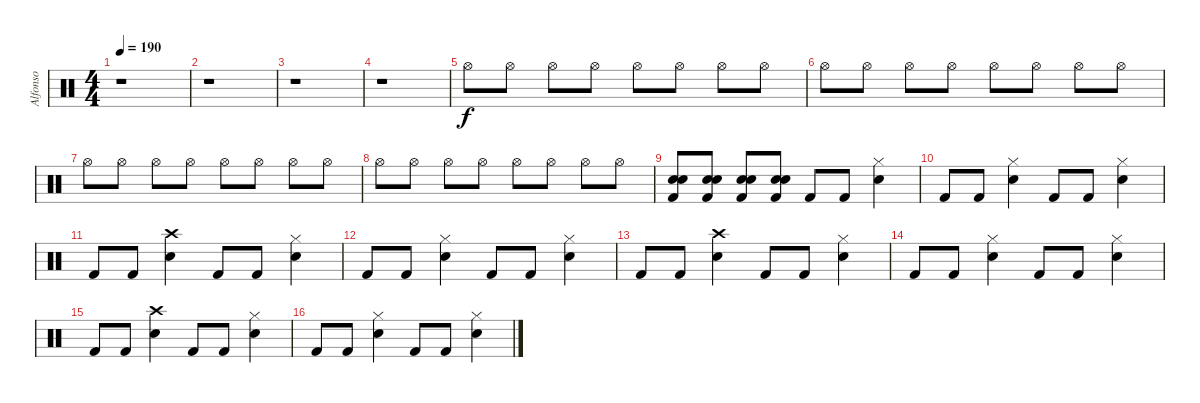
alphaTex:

\track ("Alfonso" "Alfonso") {instrument percussion}
\staff {score}
\articulation defaults
\ts (4 4)
\tempo 190
\clef neutral
\ks c
r.1{dy f} |
r.1 |
r.1 |
r.1 |
"Hi-Hat (open)".8 "Hi-Hat (open)".8 "Hi-Hat (open)".8 "Hi-Hat (open)".8 "Hi-Hat (open)".8 "Hi-Hat (open)".8 "Hi-Hat (open)".8 "Hi-Hat (open)".8 |
"Hi-Hat (open)".8 "Hi-Hat (open)".8 "Hi-Hat (open)".8 "Hi-Hat (open)".8 "Hi-Hat (open)".8 "Hi-Hat (open)".8 "Hi-Hat (open)".8 "Hi-Hat (open)".8 |
"Hi-Hat (open)".8 "Hi-Hat (open)".8 "Hi-Hat (open)".8 "Hi-Hat (open)".8 "Hi-Hat (open)".8 "Hi-Hat (open)".8 "Hi-Hat (open)".8 "Hi-Hat (open)".8 |
"Hi-Hat (open)".8 "Hi-Hat (open)".8 "Hi-Hat (open)".8 "Hi-Hat (open)".8 "Hi-Hat (open)".8 "Hi-Hat (open)".8 "Hi-Hat (open)".8 "Hi-Hat (open)".8 |
("Kick (hit) 2" "Electric Snare (hit)" "Snare (hit) 2").8 ("Kick (hit) 2" "Electric Snare (hit)" "Snare (hit) 2").8 ("Kick (hit) 2" "Electric Snare (hit)" "Snare (hit) 2").8 ("Kick (hit) 2" "Electric Snare (hit)" "Snare (hit) 2").8 "Kick (hit) 2".8 "Kick (hit) 2".8 ("Hi-Hat (closed)" "Electric Snare (hit)").4 |
"Kick (hit) 2".8 "Kick (hit) 2".8 ("Hi-Hat (closed)" "Electric Snare (hit)").4 "Kick (hit) 2".8 "Kick (hit) 2".8 ("Hi-Hat (closed)" "Electric Snare (hit)").4 |
"Kick (hit) 2".8 "Kick (hit) 2".8 ("Crash high (hit)" "Electric Snare (hit)").4 "Kick (hit) 2".8 "Kick (hit) 2".8 ("Hi-Hat (closed)" "Electric Snare (hit)").4 |
"Kick (hit) 2".8 "Kick (hit) 2".8 ("Hi-Hat (closed)" "Electric Snare (hit)").4 "Kick (hit) 2".8 "Kick (hit) 2".8 ("Hi-Hat (closed)" "Electric Snare (hit)").4 |
"Kick (hit) 2".8 "Kick (hit) 2".8 ("Crash high (hit)" "Electric Snare (hit)").4 "Kick (hit) 2".8 "Kick (hit) 2".8 ("Hi-Hat (closed)" "Electric Snare (hit)").4 |
"Kick (hit) 2".8 "Kick (hit) 2".8 ("Hi-Hat (closed)" "Electric Snare (hit)").4 "Kick (hit) 2".8 "Kick (hit) 2".8 ("Hi-Hat (closed)" "Electric Snare (hit)").4 |
"Kick (hit) 2".8 "Kick (hit) 2".8 ("Crash high (hit)" "Electric Snare (hit)").4 "Kick (hit) 2".8 "Kick (hit) 2".8 ("Hi-Hat (closed)" "Electric Snare (hit)").4 |
"Kick (hit) 2".8 "Kick (hit) 2".8 ("Hi-Hat (closed)" "Electric Snare (hit)").4 "Kick (hit) 2".8 "Kick (hit) 2".8 ("Hi-Hat (closed)" "Electric Snare (hit)").4
